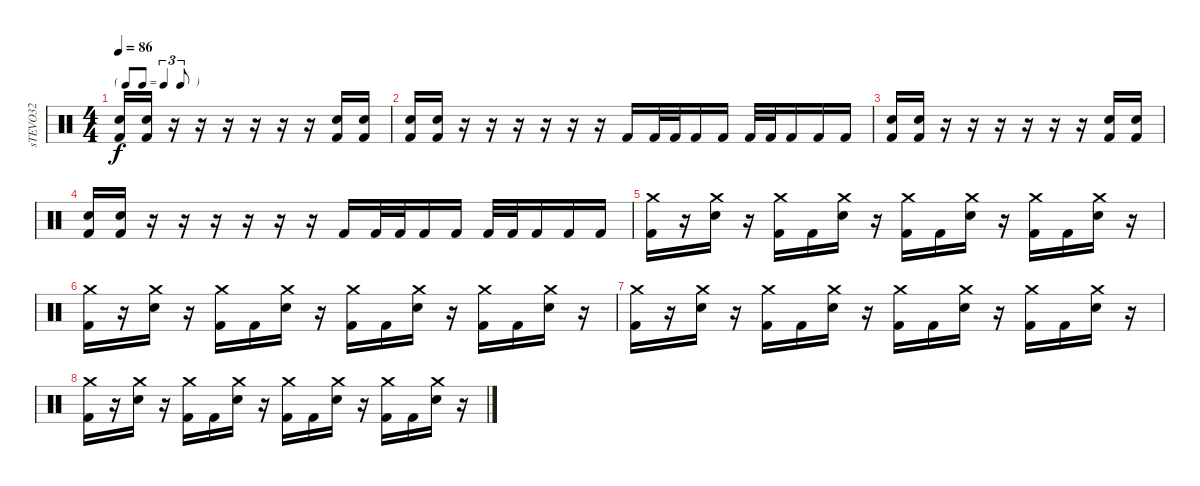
\track ("sTEVO32" "sTEVO32") {instrument percussion}
\staff {score}
\articulation defaults
\ts (4 4)
\tf triplet8th
\tempo 86
\clef neutral
\ks c
("Kick (hit) 2" "Electric Snare (hit)").16{dy f} ("Kick (hit) 2" "Electric Snare (hit)").16 r.16 r.16 r.16 r.16 r.16 r.16 ("Kick (hit) 2" "Electric Snare (hit)").16 ("Kick (hit) 2" "Electric Snare (hit)").16 |
("Kick (hit) 2" "Electric Snare (hit)").16 ("Kick (hit) 2" "Electric Snare (hit)").16 r.16 r.16 r.16 r.16 r.16 r.16 "Kick (hit) 2".16 "Kick (hit) 2".32 "Kick (hit) 2".32 "Kick (hit) 2".16 "Kick (hit) 2".16 "Kick (hit) 2".32 "Kick (hit) 2".32 "Kick (hit) 2".16 "Kick (hit) 2".16 "Kick (hit) 2".16 |
("Kick (hit) 2" "Electric Snare (hit)").16 ("Kick (hit) 2" "Electric Snare (hit)").16 r.16 r.16 r.16 r.16 r.16 r.16 ("Kick (hit) 2" "Electric Snare (hit)").16 ("Kick (hit) 2" "Electric Snare (hit)").16 |
("Kick (hit) 2" "Electric Snare (hit)").16 ("Kick (hit) 2" "Electric Snare (hit)").16 r.16 r.16 r.16 r.16 r.16 r.16 "Kick (hit) 2".16 "Kick (hit) 2".32 "Kick (hit) 2".32 "Kick (hit) 2".16 "Kick (hit) 2".16 "Kick (hit) 2".32 "Kick (hit) 2".32 "Kick (hit) 2".16 "Kick (hit) 2".16 "Kick (hit) 2".16 |
("Crash medium (hit)" "Kick (hit) 2").16 r.16 ("Crash medium (hit)" "Electric Snare (hit)").16 r.16 ("Crash medium (hit)" "Kick (hit) 2").16 "Kick (hit) 2".16 ("Crash medium (hit)" "Electric Snare (hit)").16 r.16 ("Crash medium (hit)" "Kick (hit) 2").16 "Kick (hit) 2".16 ("Crash medium (hit)" "Electric Snare (hit)").16 r.16 ("Crash medium (hit)" "Kick (hit) 2").16 "Kick (hit) 2".16 ("Crash medium (hit)" "Electric Snare (hit)").16 r.16 |
("Crash medium (hit)" "Kick (hit) 2").16 r.16 ("Crash medium (hit)" "Electric Snare (hit)").16 r.16 ("Crash medium (hit)" "Kick (hit) 2").16 "Kick (hit) 2".16 ("Crash medium (hit)" "Electric Snare (hit)").16 r.16 ("Crash medium (hit)" "Kick (hit) 2").16 "Kick (hit) 2".16 ("Crash medium (hit)" "Electric Snare (hit)").16 r.16 ("Crash medium (hit)" "Kick (hit) 2").16 "Kick (hit) 2".16 ("Crash medium (hit)" "Electric Snare (hit)").16 r.16 |
("Crash medium (hit)" "Kick (hit) 2").16 r.16 ("Crash medium (hit)" "Electric Snare (hit)").16 r.16 ("Crash medium (hit)" "Kick (hit) 2").16 "Kick (hit) 2".16 ("Crash medium (hit)" "Electric Snare (hit)").16 r.16 ("Crash medium (hit)" "Kick (hit) 2").16 "Kick (hit) 2".16 ("Crash medium (hit)" "Electric Snare (hit)").16 r.16 ("Crash medium (hit)" "Kick (hit) 2").16 "Kick (hit) 2".16 ("Crash medium (hit)" "Electric Snare (hit)").16 r.16 |
("Crash medium (hit)" "Kick (hit) 2").16 r.16 ("Crash medium (hit)" "Electric Snare (hit)").16 r.16 ("Crash medium (hit)" "Kick (hit) 2").16 "Kick (hit) 2".16 ("Crash medium (hit)" "Electric Snare (hit)").16 r.16 ("Crash medium (hit)" "Kick (hit) 2").16 "Kick (hit) 2".16 ("Crash medium (hit)" "Electric Snare (hit)").16 r.16 ("Crash medium (hit)" "Kick (hit) 2").16 "Kick (hit) 2".16 ("Crash medium (hit)" "Electric Snare (hit)").16 r.16
